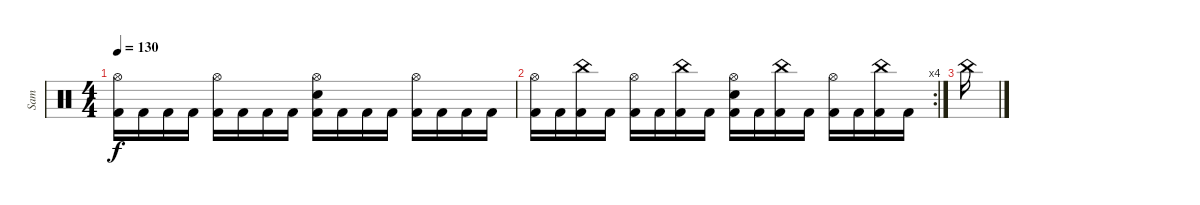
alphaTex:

\track ("Sam" "Sam") {instrument percussion}
\staff {score}
\articulation defaults
\ts (4 4)
\tempo 130
\clef neutral
\ks c
("Hi-Hat (open)" "Kick (hit) 2").16{dy f} "Kick (hit) 2".16 "Kick (hit) 2".16 "Kick (hit) 2".16 ("Hi-Hat (open)" "Kick (hit) 2").16 "Kick (hit) 2".16 "Kick (hit) 2".16 "Kick (hit) 2".16 ("Hi-Hat (open)" "Snare (hit) 2" "Kick (hit) 2").16 "Kick (hit) 2".16 "Kick (hit) 2".16 "Kick (hit) 2".16 ("Hi-Hat (open)" "Kick (hit) 2").16 "Kick (hit) 2".16 "Kick (hit) 2".16 "Kick (hit) 2".16 |
\rc 4
("Hi-Hat (open)" "Kick (hit) 2").16 "Kick (hit) 2".16 ("China (hit)" "Kick (hit) 2").16 "Kick (hit) 2".16 ("Hi-Hat (open)" "Kick (hit) 2").16 "Kick (hit) 2".16 ("China (hit)" "Kick (hit) 2").16 "Kick (hit) 2".16 ("Hi-Hat (open)" "Snare (hit) 2" "Kick (hit) 2").16 "Kick (hit) 2".16 ("China (hit)" "Kick (hit) 2").16 "Kick (hit) 2".16 ("Hi-Hat (open)" "Kick (hit) 2").16 "Kick (hit) 2".16 ("China (hit)" "Kick (hit) 2").16 "Kick (hit) 2".16 |
"China (hit)".16
